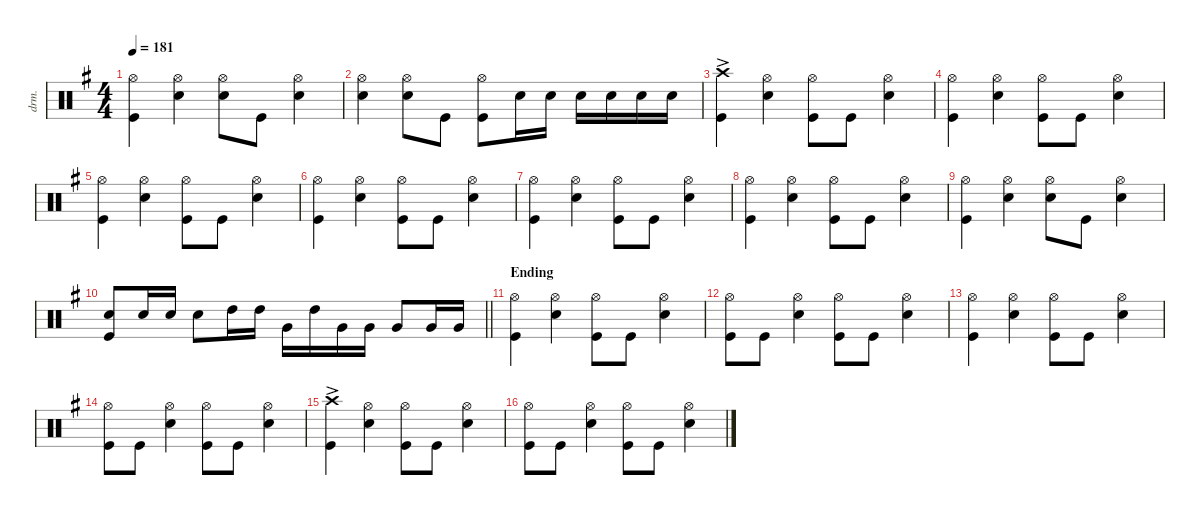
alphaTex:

\defaultSystemsLayout 4
\hideDynamics
\bracketExtendMode nobrackets
\track ("Drums" "drm.") {instrument percussion}
\staff {score}
\articulation defaults
\ts (4 4)
\tempo 181
\clef neutral
\ks g
("Kick (hit)"{acc forcenatural} "Hi-Hat (open)"{acc forcenatural}).4{dy f} ("Hi-Hat (open)"{acc forcenatural} "Snare (hit) 2"{acc forcenatural}).4 ("Snare (hit) 2"{acc forcenatural} "Hi-Hat (open)"{acc forcenatural}).8 "Kick (hit)"{acc forcenatural}.8 ("Snare (hit) 2"{acc forcenatural} "Hi-Hat (open)"{acc forcenatural}).4 |
("Snare (hit) 2"{acc forcenatural} "Hi-Hat (open)"{acc forcenatural}).4 ("Snare (hit) 2"{acc forcenatural} "Hi-Hat (open)"{acc forcenatural}).8 "Kick (hit)"{acc forcenatural}.8 ("Kick (hit)"{acc forcenatural} "Hi-Hat (open)"{acc forcenatural}).8 "Snare (hit) 2"{acc forcenatural}.16 "Snare (hit) 2"{acc forcenatural}.16 "Snare (hit) 2"{acc forcenatural}.16 "Snare (hit) 2"{acc forcenatural}.16 "Snare (hit) 2"{acc forcenatural}.16 "Snare (hit) 2"{acc forcenatural}.16 |
("Kick (hit)"{acc forcenatural} "Crash high (hit)"{ac acc forcenatural}).4 ("Hi-Hat (open)"{acc forcenatural} "Snare (hit) 2"{acc forcenatural}).4 ("Kick (hit)"{acc forcenatural} "Hi-Hat (open)"{acc forcenatural}).8 "Kick (hit)"{acc forcenatural}.8 ("Snare (hit) 2"{acc forcenatural} "Hi-Hat (open)"{acc forcenatural}).4 |
("Kick (hit)"{acc forcenatural} "Hi-Hat (open)"{acc forcenatural}).4 ("Hi-Hat (open)"{acc forcenatural} "Snare (hit) 2"{acc forcenatural}).4 ("Kick (hit)"{acc forcenatural} "Hi-Hat (open)"{acc forcenatural}).8 "Kick (hit)"{acc forcenatural}.8 ("Snare (hit) 2"{acc forcenatural} "Hi-Hat (open)"{acc forcenatural}).4 |
("Kick (hit)"{acc forcenatural} "Hi-Hat (open)"{acc forcenatural}).4 ("Hi-Hat (open)"{acc forcenatural} "Snare (hit) 2"{acc forcenatural}).4 ("Kick (hit)"{acc forcenatural} "Hi-Hat (open)"{acc forcenatural}).8 "Kick (hit)"{acc forcenatural}.8 ("Snare (hit) 2"{acc forcenatural} "Hi-Hat (open)"{acc forcenatural}).4 |
("Kick (hit)"{acc forcenatural} "Hi-Hat (open)"{acc forcenatural}).4 ("Hi-Hat (open)"{acc forcenatural} "Snare (hit) 2"{acc forcenatural}).4 ("Kick (hit)"{acc forcenatural} "Hi-Hat (open)"{acc forcenatural}).8 "Kick (hit)"{acc forcenatural}.8 ("Snare (hit) 2"{acc forcenatural} "Hi-Hat (open)"{acc forcenatural}).4 |
("Kick (hit)"{acc forcenatural} "Hi-Hat (open)"{acc forcenatural}).4 ("Hi-Hat (open)"{acc forcenatural} "Snare (hit) 2"{acc forcenatural}).4 ("Kick (hit)"{acc forcenatural} "Hi-Hat (open)"{acc forcenatural}).8 "Kick (hit)"{acc forcenatural}.8 ("Snare (hit) 2"{acc forcenatural} "Hi-Hat (open)"{acc forcenatural}).4 |
("Kick (hit)"{acc forcenatural} "Hi-Hat (open)"{acc forcenatural}).4 ("Hi-Hat (open)"{acc forcenatural} "Snare (hit) 2"{acc forcenatural}).4 ("Kick (hit)"{acc forcenatural} "Hi-Hat (open)"{acc forcenatural}).8 "Kick (hit)"{acc forcenatural}.8 ("Snare (hit) 2"{acc forcenatural} "Hi-Hat (open)"{acc forcenatural}).4 |
("Kick (hit)"{acc forcenatural} "Hi-Hat (open)"{acc forcenatural}).4 ("Hi-Hat (open)"{acc forcenatural} "Snare (hit) 2"{acc forcenatural}).4 ("Hi-Hat (open)"{acc forcenatural} "Snare (hit) 2"{acc forcenatural}).8 "Kick (hit)"{acc forcenatural}.8 ("Snare (hit) 2"{acc forcenatural} "Hi-Hat (open)"{acc forcenatural}).4 |
\barLineRight lightlight
("Kick (hit)"{acc forcenatural} "Snare (hit) 2"{acc forcenatural}).8 "Snare (hit) 2"{acc forcenatural}.16 "Snare (hit) 2"{acc forcenatural}.16 "Snare (hit) 2"{acc forcenatural}.8 "High Tom (hit)"{acc forcenatural}.16 "High Tom (hit)"{acc forcenatural}.16 "Very Low Tom (hit)"{acc forcenatural}.16 "High Tom (hit)"{acc forcenatural}.16 "Very Low Tom (hit)"{acc forcenatural}.16 "Very Low Tom (hit)"{acc forcenatural}.16 "Very Low Tom (hit)"{acc forcenatural}.8 "Very Low Tom (hit)"{acc forcenatural}.16 "Very Low Tom (hit)"{acc forcenatural}.16 |
\section ("" "Ending")
("Hi-Hat (open)"{acc forcenatural} "Kick (hit)"{acc forcenatural}).4 ("Hi-Hat (open)"{acc forcenatural} "Snare (hit) 2"{acc forcenatural}).4 ("Kick (hit)"{acc forcenatural} "Hi-Hat (open)"{acc forcenatural}).8 "Kick (hit)"{acc forcenatural}.8 ("Hi-Hat (open)"{acc forcenatural} "Snare (hit) 2"{acc forcenatural}).4 |
("Kick (hit)"{acc forcenatural} "Hi-Hat (open)"{acc forcenatural}).8 "Kick (hit)"{acc forcenatural}.8 ("Hi-Hat (open)"{acc forcenatural} "Snare (hit) 2"{acc forcenatural}).4 ("Kick (hit)"{acc forcenatural} "Hi-Hat (open)"{acc forcenatural}).8 "Kick (hit)"{acc forcenatural}.8 ("Hi-Hat (open)"{acc forcenatural} "Snare (hit) 2"{acc forcenatural}).4 |
("Hi-Hat (open)"{acc forcenatural} "Kick (hit)"{acc forcenatural}).4 ("Hi-Hat (open)"{acc forcenatural} "Snare (hit) 2"{acc forcenatural}).4 ("Kick (hit)"{acc forcenatural} "Hi-Hat (open)"{acc forcenatural}).8 "Kick (hit)"{acc forcenatural}.8 ("Hi-Hat (open)"{acc forcenatural} "Snare (hit) 2"{acc forcenatural}).4 |
("Kick (hit)"{acc forcenatural} "Hi-Hat (open)"{acc forcenatural}).8 "Kick (hit)"{acc forcenatural}.8 ("Hi-Hat (open)"{acc forcenatural} "Snare (hit) 2"{acc forcenatural}).4 ("Kick (hit)"{acc forcenatural} "Hi-Hat (open)"{acc forcenatural}).8 "Kick (hit)"{acc forcenatural}.8 ("Hi-Hat (open)"{acc forcenatural} "Snare (hit) 2"{acc forcenatural}).4 |
("Crash high (hit)"{ac acc forcenatural} "Kick (hit)"{acc forcenatural}).4 ("Hi-Hat (open)"{acc forcenatural} "Snare (hit) 2"{acc forcenatural}).4 ("Kick (hit)"{acc forcenatural} "Hi-Hat (open)"{acc forcenatural}).8 "Kick (hit)"{acc forcenatural}.8 ("Hi-Hat (open)"{acc forcenatural} "Snare (hit) 2"{acc forcenatural}).4 |
("Kick (hit)"{acc forcenatural} "Hi-Hat (open)"{acc forcenatural}).8 "Kick (hit)"{acc forcenatural}.8 ("Hi-Hat (open)"{acc forcenatural} "Snare (hit) 2"{acc forcenatural}).4 ("Kick (hit)"{acc forcenatural} "Hi-Hat (open)"{acc forcenatural}).8 "Kick (hit)"{acc forcenatural}.8 ("Hi-Hat (open)"{acc forcenatural} "Snare (hit) 2"{acc forcenatural}).4
